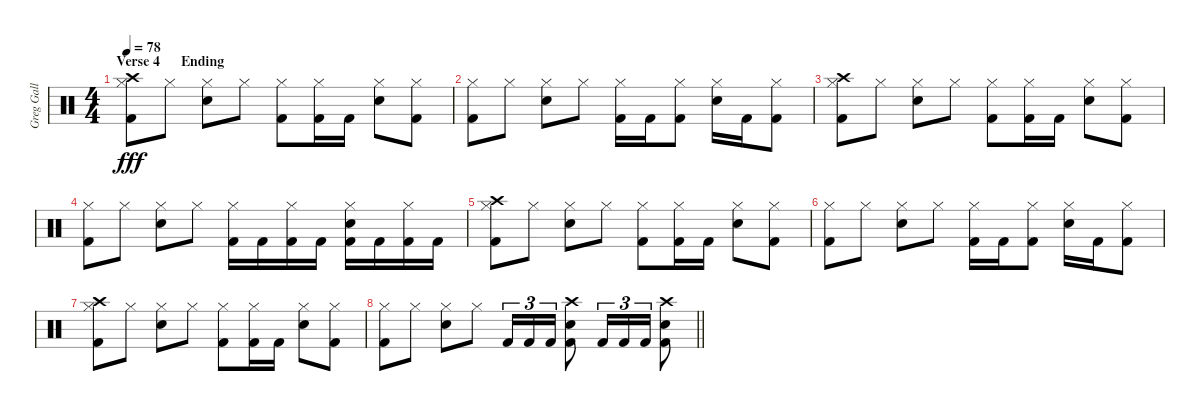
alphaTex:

\track ("Greg Gall" "Greg Gall") {instrument percussion}
\staff {score}
\articulation defaults
\ts (4 4)
\section ("" "Verse 4      Ending")
\tempo 78
\clef neutral
\ks c
("Crash high (hit)" "Hi-Hat (closed)" "Kick (hit) 2").8{dy fff} "Hi-Hat (closed)".8 ("Hi-Hat (closed)" "Electric Snare (hit)").8 "Hi-Hat (closed)".8 ("Hi-Hat (closed)" "Kick (hit) 2").8 ("Hi-Hat (closed)" "Kick (hit) 2").16 "Kick (hit) 2".16 ("Hi-Hat (closed)" "Electric Snare (hit)").8 ("Hi-Hat (closed)" "Kick (hit) 2").8 |
("Hi-Hat (closed)" "Kick (hit) 2").8 "Hi-Hat (closed)".8 ("Hi-Hat (closed)" "Electric Snare (hit)").8 "Hi-Hat (closed)".8 ("Hi-Hat (closed)" "Kick (hit) 2").16 "Kick (hit) 2".16 ("Hi-Hat (closed)" "Kick (hit) 2").8 ("Hi-Hat (closed)" "Electric Snare (hit)").16 "Kick (hit) 2".16 ("Hi-Hat (closed)" "Kick (hit) 2").8 |
("Crash high (hit)" "Hi-Hat (closed)" "Kick (hit) 2").8 "Hi-Hat (closed)".8 ("Hi-Hat (closed)" "Electric Snare (hit)").8 "Hi-Hat (closed)".8 ("Hi-Hat (closed)" "Kick (hit) 2").8 ("Hi-Hat (closed)" "Kick (hit) 2").16 "Kick (hit) 2".16 ("Hi-Hat (closed)" "Electric Snare (hit)").8 ("Hi-Hat (closed)" "Kick (hit) 2").8 |
("Hi-Hat (closed)" "Kick (hit) 2").8 "Hi-Hat (closed)".8 ("Hi-Hat (closed)" "Electric Snare (hit)").8 "Hi-Hat (closed)".8 ("Hi-Hat (closed)" "Kick (hit) 2").16 "Kick (hit) 2".16 ("Hi-Hat (closed)" "Kick (hit) 2").16 "Kick (hit) 2".16 ("Hi-Hat (closed)" "Electric Snare (hit)" "Kick (hit) 2").16 "Kick (hit) 2".16 ("Hi-Hat (closed)" "Kick (hit) 2").16 "Kick (hit) 2".16 |
("Crash high (hit)" "Hi-Hat (closed)" "Kick (hit) 2").8 "Hi-Hat (closed)".8 ("Hi-Hat (closed)" "Electric Snare (hit)").8 "Hi-Hat (closed)".8 ("Hi-Hat (closed)" "Kick (hit) 2").8 ("Hi-Hat (closed)" "Kick (hit) 2").16 "Kick (hit) 2".16 ("Hi-Hat (closed)" "Electric Snare (hit)").8 ("Hi-Hat (closed)" "Kick (hit) 2").8 |
("Hi-Hat (closed)" "Kick (hit) 2").8 "Hi-Hat (closed)".8 ("Hi-Hat (closed)" "Electric Snare (hit)").8 "Hi-Hat (closed)".8 ("Hi-Hat (closed)" "Kick (hit) 2").16 "Kick (hit) 2".16 ("Hi-Hat (closed)" "Kick (hit) 2").8 ("Hi-Hat (closed)" "Electric Snare (hit)").16 "Kick (hit) 2".16 ("Hi-Hat (closed)" "Kick (hit) 2").8 |
("Crash high (hit)" "Hi-Hat (closed)" "Kick (hit) 2").8 "Hi-Hat (closed)".8 ("Hi-Hat (closed)" "Electric Snare (hit)").8 "Hi-Hat (closed)".8 ("Hi-Hat (closed)" "Kick (hit) 2").8 ("Hi-Hat (closed)" "Kick (hit) 2").16 "Kick (hit) 2".16 ("Hi-Hat (closed)" "Electric Snare (hit)").8 ("Hi-Hat (closed)" "Kick (hit) 2").8 |
\barLineRight lightlight
("Hi-Hat (closed)" "Kick (hit) 2").8 "Hi-Hat (closed)".8 ("Hi-Hat (closed)" "Electric Snare (hit)").8 "Hi-Hat (closed)".8 "Kick (hit) 2".16{tu (3 2)} "Kick (hit) 2".16{tu (3 2)} "Kick (hit) 2".16{tu (3 2)} ("Crash high (hit)" "Electric Snare (hit)" "Kick (hit) 2").8 "Kick (hit) 2".16{tu (3 2)} "Kick (hit) 2".16{tu (3 2)} "Kick (hit) 2".16{tu (3 2)} ("Crash high (hit)" "Electric Snare (hit)" "Kick (hit) 2").8{volume 0}
